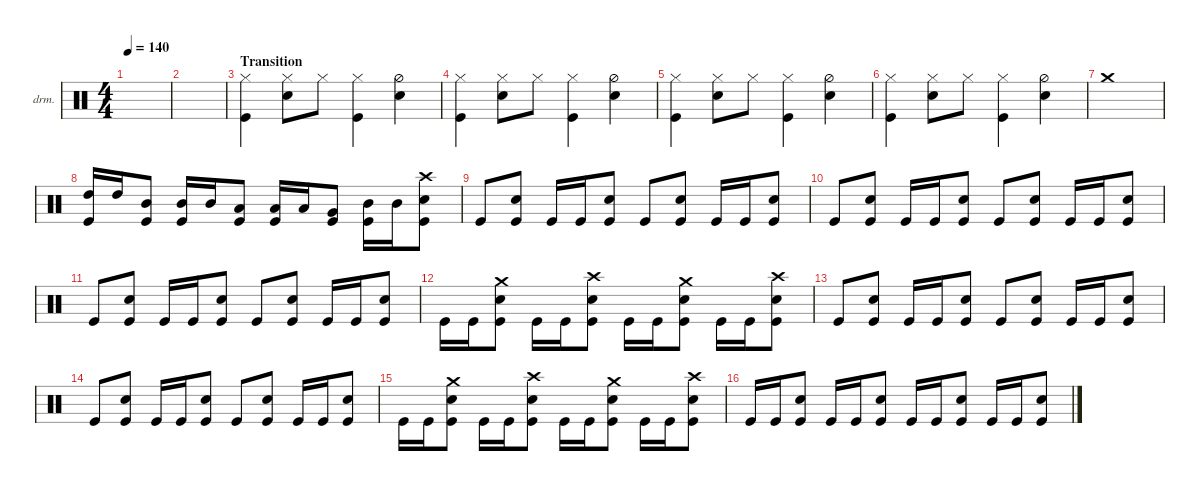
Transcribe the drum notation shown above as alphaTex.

\defaultSystemsLayout 4
\hideDynamics
\bracketExtendMode nobrackets
\firstSystemTrackNameOrientation horizontal
\otherSystemsTrackNameOrientation horizontal
\track ("Drumkit" "drm.") {instrument percussion}
\staff {score}
\articulation defaults
\ts (4 4)
\tempo 140
\clef neutral
\ks c
|
|
\section ("" "Transition")
("Hi-Hat (closed)" "Kick (hit)").4 ("Hi-Hat (closed)" "Snare (hit) 2").8 "Hi-Hat (closed)".8 ("Hi-Hat (closed)" "Kick (hit)").4 ("Hi-Hat (half)" "Snare (hit) 2").4 |
("Hi-Hat (closed)" "Kick (hit)").4 ("Hi-Hat (closed)" "Snare (hit) 2").8 "Hi-Hat (closed)".8 ("Hi-Hat (closed)" "Kick (hit)").4 ("Hi-Hat (half)" "Snare (hit) 2").4 |
("Hi-Hat (closed)" "Kick (hit)").4 ("Hi-Hat (closed)" "Snare (hit) 2").8 "Hi-Hat (closed)".8 ("Hi-Hat (closed)" "Kick (hit)").4 ("Hi-Hat (half)" "Snare (hit) 2").4 |
("Hi-Hat (closed)" "Kick (hit)").4 ("Hi-Hat (closed)" "Snare (hit) 2").8 "Hi-Hat (closed)".8 ("Hi-Hat (closed)" "Kick (hit)").4 ("Hi-Hat (half)" "Snare (hit) 2").4 |
"Crash medium (hit)".1 |
("High Tom (hit)" "Kick (hit)").16 "High Tom (hit)".16 ("Mid Tom (hit)" "Kick (hit)").8 ("Mid Tom (hit)" "Kick (hit)").16 "Mid Tom (hit)".16 ("Low Tom (hit)" "Kick (hit)").8 ("Low Tom (hit)" "Kick (hit)").16 "Low Tom (hit)".16 ("Very Low Tom (hit)" "Kick (hit)").8 ("Kick (hit)" "Mid Tom (hit)").16 "Mid Tom (hit)".16 ("Snare (hit) 2" "Kick (hit)" "Crash high (hit)").8 |
"Kick (hit)".8 ("Snare (hit) 2" "Kick (hit)").8 "Kick (hit)".16 "Kick (hit)".16 ("Snare (hit) 2" "Kick (hit)").8 "Kick (hit)".8 ("Snare (hit) 2" "Kick (hit)").8 "Kick (hit)".16 "Kick (hit)".16 ("Snare (hit) 2" "Kick (hit)").8 |
"Kick (hit)".8 ("Snare (hit) 2" "Kick (hit)").8 "Kick (hit)".16 "Kick (hit)".16 ("Snare (hit) 2" "Kick (hit)").8 "Kick (hit)".8 ("Snare (hit) 2" "Kick (hit)").8 "Kick (hit)".16 "Kick (hit)".16 ("Snare (hit) 2" "Kick (hit)").8 |
"Kick (hit)".8 ("Snare (hit) 2" "Kick (hit)").8 "Kick (hit)".16 "Kick (hit)".16 ("Snare (hit) 2" "Kick (hit)").8 "Kick (hit)".8 ("Snare (hit) 2" "Kick (hit)").8 "Kick (hit)".16 "Kick (hit)".16 ("Snare (hit) 2" "Kick (hit)").8 |
"Kick (hit)".16 "Kick (hit)".16 ("Snare (hit) 2" "Kick (hit)" "Crash medium (hit)").8 "Kick (hit)".16 "Kick (hit)".16 ("Snare (hit) 2" "Kick (hit)" "Crash high (hit)").8 "Kick (hit)".16 "Kick (hit)".16 ("Snare (hit) 2" "Kick (hit)" "Crash medium (hit)").8 "Kick (hit)".16 "Kick (hit)".16 ("Snare (hit) 2" "Kick (hit)" "Crash high (hit)").8 |
"Kick (hit)".8 ("Snare (hit) 2" "Kick (hit)").8 "Kick (hit)".16 "Kick (hit)".16 ("Snare (hit) 2" "Kick (hit)").8 "Kick (hit)".8 ("Snare (hit) 2" "Kick (hit)").8 "Kick (hit)".16 "Kick (hit)".16 ("Snare (hit) 2" "Kick (hit)").8 |
"Kick (hit)".8 ("Snare (hit) 2" "Kick (hit)").8 "Kick (hit)".16 "Kick (hit)".16 ("Snare (hit) 2" "Kick (hit)").8 "Kick (hit)".8 ("Snare (hit) 2" "Kick (hit)").8 "Kick (hit)".16 "Kick (hit)".16 ("Snare (hit) 2" "Kick (hit)").8 |
"Kick (hit)".16 "Kick (hit)".16 ("Snare (hit) 2" "Kick (hit)" "Crash medium (hit)").8 "Kick (hit)".16 "Kick (hit)".16 ("Snare (hit) 2" "Kick (hit)" "Crash high (hit)").8 "Kick (hit)".16 "Kick (hit)".16 ("Snare (hit) 2" "Kick (hit)" "Crash medium (hit)").8 "Kick (hit)".16 "Kick (hit)".16 ("Snare (hit) 2" "Kick (hit)" "Crash high (hit)").8 |
"Kick (hit)".16 "Kick (hit)".16 ("Snare (hit) 2" "Kick (hit)").8 "Kick (hit)".16 "Kick (hit)".16 ("Snare (hit) 2" "Kick (hit)").8 "Kick (hit)".16 "Kick (hit)".16 ("Snare (hit) 2" "Kick (hit)").8 "Kick (hit)".16 "Kick (hit)".16 ("Snare (hit) 2" "Kick (hit)").8
